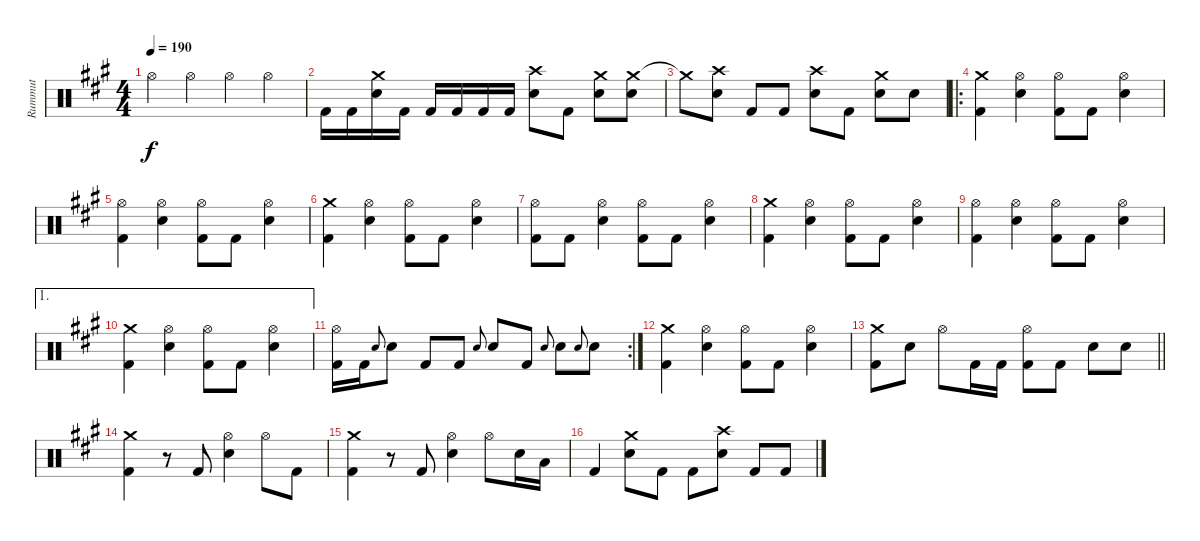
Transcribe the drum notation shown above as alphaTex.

\track ("Rummut" "Rummut") {instrument percussion}
\staff {score}
\articulation defaults
\ts (4 4)
\tempo 190
\clef neutral
\ks a "Hi-Hat (open)".4{dy f} "Hi-Hat (open)".4 "Hi-Hat (open)".4 "Hi-Hat (open)".4
|
"Kick (hit) 2".16 "Kick (hit) 2".16 ("Crash medium (hit)" "Snare (hit) 2").16 "Kick (hit) 2".16 "Kick (hit) 2".16 "Kick (hit) 2".16 "Kick (hit) 2".16 "Kick (hit) 2".16 ("Crash high (hit)" "Snare (hit) 2").8 "Kick (hit) 2".8 ("Crash medium (hit)" "Snare (hit) 2").8 ("Crash medium (hit)" "Snare (hit) 2").8 |
"Crash medium (hit)"{t}.8 ("Crash high (hit)" "Snare (hit) 2").8 "Kick (hit) 2".8 "Kick (hit) 2".8 ("Crash high (hit)" "Snare (hit) 2").8 "Kick (hit) 2".8 ("Crash medium (hit)" "Snare (hit) 2").8 "Snare (hit) 2".8 |
\ro
("Crash medium (hit)" "Kick (hit) 2").4 ("Hi-Hat (open)" "Snare (hit) 2").4 ("Hi-Hat (open)" "Kick (hit) 2").8 "Kick (hit) 2".8 ("Hi-Hat (open)" "Snare (hit) 2").4 |
("Hi-Hat (open)" "Kick (hit) 2").4 ("Hi-Hat (open)" "Snare (hit) 2").4 ("Hi-Hat (open)" "Kick (hit) 2").8 "Kick (hit) 2".8 ("Hi-Hat (open)" "Snare (hit) 2").4 |
("Crash medium (hit)" "Kick (hit) 2").4 ("Hi-Hat (open)" "Snare (hit) 2").4 ("Hi-Hat (open)" "Kick (hit) 2").8 "Kick (hit) 2".8 ("Hi-Hat (open)" "Snare (hit) 2").4 |
("Hi-Hat (open)" "Kick (hit) 2").8 "Kick (hit) 2".8 ("Hi-Hat (open)" "Snare (hit) 2").4 ("Hi-Hat (open)" "Kick (hit) 2").8 "Kick (hit) 2".8 ("Hi-Hat (open)" "Snare (hit) 2").4 |
("Crash medium (hit)" "Kick (hit) 2").4 ("Hi-Hat (open)" "Snare (hit) 2").4 ("Hi-Hat (open)" "Kick (hit) 2").8 "Kick (hit) 2".8 ("Hi-Hat (open)" "Snare (hit) 2").4 |
("Hi-Hat (open)" "Kick (hit) 2").4 ("Hi-Hat (open)" "Snare (hit) 2").4 ("Hi-Hat (open)" "Kick (hit) 2").8 "Kick (hit) 2".8 ("Hi-Hat (open)" "Snare (hit) 2").4 |
\ae 1
("Crash medium (hit)" "Kick (hit) 2").4 ("Hi-Hat (open)" "Snare (hit) 2").4 ("Hi-Hat (open)" "Kick (hit) 2").8 "Kick (hit) 2".8 ("Hi-Hat (open)" "Snare (hit) 2").4 |
\rc 2
("Hi-Hat (open)" "Kick (hit) 2").16 "Kick (hit) 2".16 "Snare (hit) 2".8{gr onbeat} "Snare (hit) 2".8 "Kick (hit) 2".8 "Kick (hit) 2".8 "Snare (hit) 2".8{gr onbeat} "Snare (hit) 2".8 "Kick (hit) 2".8 "Snare (hit) 2".8{gr onbeat} "Snare (hit) 2".8 "Snare (hit) 2".8{gr onbeat} "Snare (hit) 2".8 |
("Crash medium (hit)" "Kick (hit) 2").4 ("Hi-Hat (open)" "Snare (hit) 2").4 ("Hi-Hat (open)" "Kick (hit) 2").8 "Kick (hit) 2".8 ("Hi-Hat (open)" "Snare (hit) 2").4 |
\barLineRight lightlight
("Crash medium (hit)" "Kick (hit) 2").8 "Snare (hit) 2".8 "Hi-Hat (open)".8 "Kick (hit) 2".16 "Kick (hit) 2".16 ("Hi-Hat (open)" "Kick (hit) 2").8 "Kick (hit) 2".8 "Snare (hit) 2".8 "Snare (hit) 2".8 |
("Crash medium (hit)" "Kick (hit) 2").4 r.8 "Kick (hit) 2".8 ("Hi-Hat (open)" "Snare (hit) 2").4 "Hi-Hat (open)".8 "Kick (hit) 2".8 |
("Crash medium (hit)" "Kick (hit) 2").4 r.8 "Kick (hit) 2".8 ("Hi-Hat (open)" "Snare (hit) 2").4 "Hi-Hat (open)".8 "Snare (hit) 2".16 "Low Tom (hit)".16 |
"Kick (hit) 2".4 ("Crash medium (hit)" "Snare (hit) 2").8 "Kick (hit) 2".8 "Kick (hit) 2".8 ("Crash high (hit)" "Snare (hit) 2").8 "Kick (hit) 2".8 "Kick (hit) 2".8
